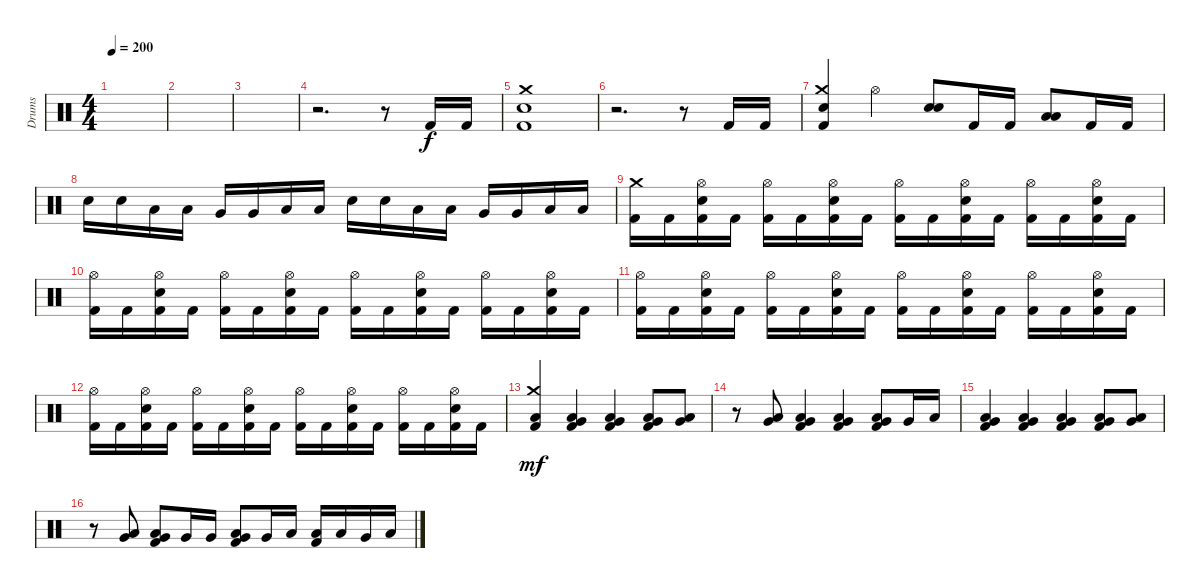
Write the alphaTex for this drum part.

\track ("Drums" "Drums") {instrument percussion}
\staff {score}
\articulation defaults
\ts (4 4)
\tempo 200
\clef neutral
\ks c
|
|
|
r.2{d} r.8 "Kick (hit) 2".16 "Kick (hit) 2".16 |
("Crash medium (hit)" "Snare (hit) 2" "Kick (hit) 2").1 |
r.2{d} r.8 "Kick (hit) 2".16 "Kick (hit) 2".16 |
("Crash medium (hit)" "Snare (hit) 2" "Kick (hit) 2").4 "Hi-Hat (open)".4 ("Snare (hit) 2" "Snare (hit) 2").8{bu 240} "Kick (hit) 2".16 "Kick (hit) 2".16 ("Low Tom (hit)" "Low Tom (hit)").8{bu 240} "Kick (hit) 2".16 "Kick (hit) 2".16 |
"Snare (hit) 2".16 "Snare (hit) 2".16 "Low Tom (hit)".16 "Low Tom (hit)".16 "Very Low Tom (hit)".16 "Very Low Tom (hit)".16 "Low Floor Tom (hit)".16 "Low Floor Tom (hit)".16 "Snare (hit) 2".16 "Snare (hit) 2".16 "Low Tom (hit)".16 "Low Tom (hit)".16 "Very Low Tom (hit)".16 "Very Low Tom (hit)".16 "Low Floor Tom (hit)".16 "Low Floor Tom (hit)".16 |
("Crash medium (hit)" "Kick (hit) 2").16 "Kick (hit) 2".16 ("Hi-Hat (open)" "Snare (hit) 2" "Kick (hit) 2").16 "Kick (hit) 2".16 ("Hi-Hat (open)" "Kick (hit) 2").16 "Kick (hit) 2".16 ("Hi-Hat (open)" "Snare (hit) 2" "Kick (hit) 2").16 "Kick (hit) 2".16 ("Hi-Hat (open)" "Kick (hit) 2").16 "Kick (hit) 2".16 ("Hi-Hat (open)" "Snare (hit) 2" "Kick (hit) 2").16 "Kick (hit) 2".16 ("Hi-Hat (open)" "Kick (hit) 2").16 "Kick (hit) 2".16 ("Hi-Hat (open)" "Snare (hit) 2" "Kick (hit) 2").16 "Kick (hit) 2".16 |
("Hi-Hat (open)" "Kick (hit) 2").16 "Kick (hit) 2".16 ("Hi-Hat (open)" "Snare (hit) 2" "Kick (hit) 2").16 "Kick (hit) 2".16 ("Hi-Hat (open)" "Kick (hit) 2").16 "Kick (hit) 2".16 ("Hi-Hat (open)" "Snare (hit) 2" "Kick (hit) 2").16 "Kick (hit) 2".16 ("Hi-Hat (open)" "Kick (hit) 2").16 "Kick (hit) 2".16 ("Hi-Hat (open)" "Snare (hit) 2" "Kick (hit) 2").16 "Kick (hit) 2".16 ("Hi-Hat (open)" "Kick (hit) 2").16 "Kick (hit) 2".16 ("Hi-Hat (open)" "Snare (hit) 2" "Kick (hit) 2").16 "Kick (hit) 2".16 |
("Hi-Hat (open)" "Kick (hit) 2").16 "Kick (hit) 2".16 ("Hi-Hat (open)" "Snare (hit) 2" "Kick (hit) 2").16 "Kick (hit) 2".16 ("Hi-Hat (open)" "Kick (hit) 2").16 "Kick (hit) 2".16 ("Hi-Hat (open)" "Snare (hit) 2" "Kick (hit) 2").16 "Kick (hit) 2".16 ("Hi-Hat (open)" "Kick (hit) 2").16 "Kick (hit) 2".16 ("Hi-Hat (open)" "Snare (hit) 2" "Kick (hit) 2").16 "Kick (hit) 2".16 ("Hi-Hat (open)" "Kick (hit) 2").16 "Kick (hit) 2".16 ("Hi-Hat (open)" "Snare (hit) 2" "Kick (hit) 2").16 "Kick (hit) 2".16 |
("Hi-Hat (open)" "Kick (hit) 2").16 "Kick (hit) 2".16 ("Hi-Hat (open)" "Snare (hit) 2" "Kick (hit) 2").16 "Kick (hit) 2".16 ("Hi-Hat (open)" "Kick (hit) 2").16 "Kick (hit) 2".16 ("Hi-Hat (open)" "Snare (hit) 2" "Kick (hit) 2").16 "Kick (hit) 2".16 ("Hi-Hat (open)" "Kick (hit) 2").16 "Kick (hit) 2".16 ("Hi-Hat (open)" "Snare (hit) 2" "Kick (hit) 2").16 "Kick (hit) 2".16 ("Hi-Hat (open)" "Kick (hit) 2").16 "Kick (hit) 2".16 ("Hi-Hat (open)" "Snare (hit) 2" "Kick (hit) 2").16 "Kick (hit) 2".16 |
("Crash medium (hit)" "Low Floor Tom (hit)" "Kick (hit) 2").4{dy mf} ("Very Low Tom (hit)" "Low Floor Tom (hit)" "Kick (hit) 2").4 ("Very Low Tom (hit)" "Low Floor Tom (hit)" "Kick (hit) 2").4 ("Very Low Tom (hit)" "Low Floor Tom (hit)" "Kick (hit) 2").8 ("Very Low Tom (hit)" "Low Floor Tom (hit)").8 |
r.8 ("Very Low Tom (hit)" "Low Floor Tom (hit)").8 ("Very Low Tom (hit)" "Low Floor Tom (hit)" "Kick (hit) 2").4 ("Very Low Tom (hit)" "Low Floor Tom (hit)" "Kick (hit) 2").4 ("Very Low Tom (hit)" "Low Floor Tom (hit)" "Kick (hit) 2").8 "Very Low Tom (hit)".16 "Low Floor Tom (hit)".16 |
("Very Low Tom (hit)" "Low Floor Tom (hit)" "Kick (hit) 2").4 ("Very Low Tom (hit)" "Low Floor Tom (hit)" "Kick (hit) 2").4 ("Very Low Tom (hit)" "Low Floor Tom (hit)" "Kick (hit) 2").4 ("Very Low Tom (hit)" "Low Floor Tom (hit)" "Kick (hit) 2").8 ("Very Low Tom (hit)" "Low Floor Tom (hit)").8 |
r.8 ("Very Low Tom (hit)" "Low Floor Tom (hit)").8 ("Very Low Tom (hit)" "Low Floor Tom (hit)" "Kick (hit) 2").8 "Very Low Tom (hit)".16 "Very Low Tom (hit)".16 ("Very Low Tom (hit)" "Low Floor Tom (hit)" "Kick (hit) 2").8 "Very Low Tom (hit)".16 "Low Floor Tom (hit)".16 ("Low Tom (hit)" "Kick (hit) 2").16 "Low Tom (hit)".16 "Very Low Tom (hit)".16 "Low Floor Tom (hit)".16
